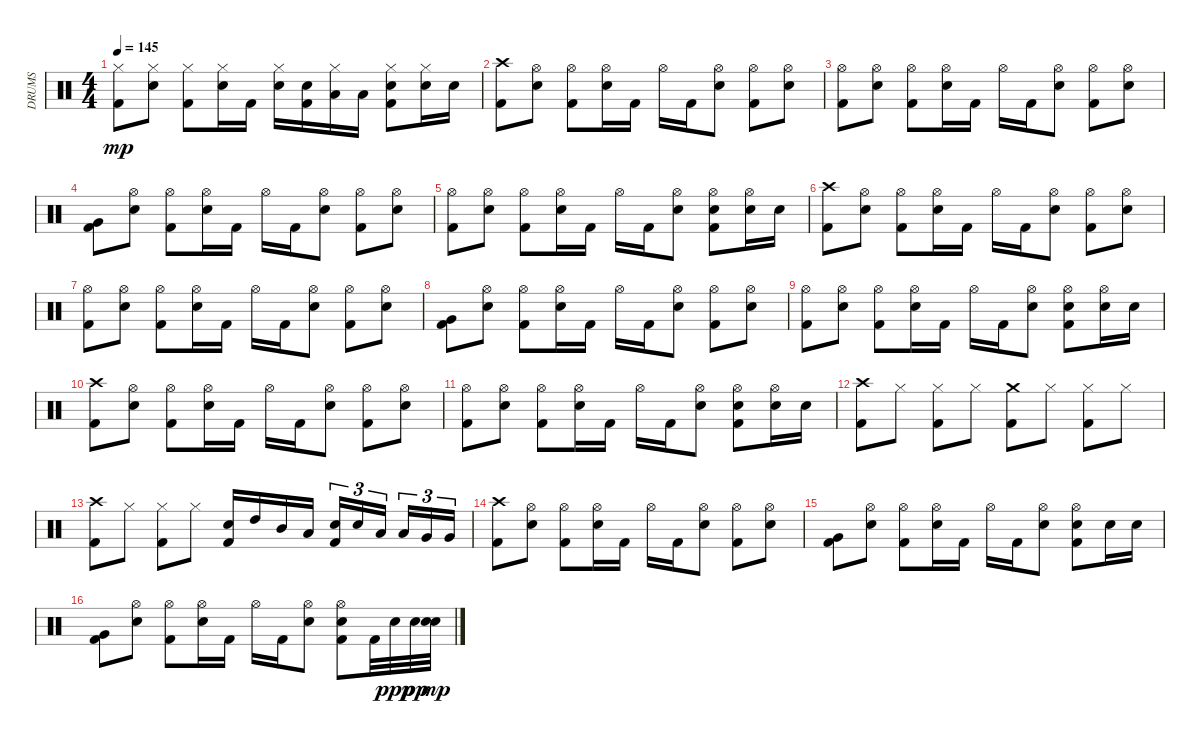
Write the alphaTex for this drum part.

\track ("DRUMS" "DRUMS") {instrument percussion}
\staff {score}
\articulation defaults
\ts (4 4)
\tempo 145
\clef neutral
\ks c
("Hi-Hat (closed)" "Kick (hit) 2").8{dy mp} ("Hi-Hat (closed)" "Electric Snare (hit)").8 ("Hi-Hat (closed)" "Kick (hit) 2").8 ("Hi-Hat (closed)" "Electric Snare (hit)").16 "Kick (hit) 2".16 ("Electric Snare (hit)" "Hi-Hat (closed)").16 ("Kick (hit) 2" "Electric Snare (hit)").16 ("Low Tom (hit)" "Hi-Hat (closed)").16 "Low Tom (hit)".16 ("Kick (hit) 2" "Electric Snare (hit)" "Hi-Hat (closed)").8 ("Electric Snare (hit)" "Hi-Hat (closed)").16 "Electric Snare (hit)".16 |
("Crash high (hit)" "Kick (hit) 2").8 ("Hi-Hat (open)" "Electric Snare (hit)").8 ("Hi-Hat (open)" "Kick (hit) 2").8 ("Hi-Hat (open)" "Electric Snare (hit)").16 "Kick (hit) 2".16 "Hi-Hat (open)".16 "Kick (hit) 2".16 ("Hi-Hat (open)" "Electric Snare (hit)").8 ("Hi-Hat (open)" "Kick (hit) 2").8 ("Hi-Hat (open)" "Electric Snare (hit)").8 |
("Hi-Hat (open)" "Kick (hit) 2").8 ("Hi-Hat (open)" "Electric Snare (hit)").8 ("Hi-Hat (open)" "Kick (hit) 2").8 ("Hi-Hat (open)" "Electric Snare (hit)").16 "Kick (hit) 2".16 "Hi-Hat (open)".16 "Kick (hit) 2".16 ("Hi-Hat (open)" "Electric Snare (hit)").8 ("Hi-Hat (open)" "Kick (hit) 2").8 ("Hi-Hat (open)" "Electric Snare (hit)").8 |
("Kick (hit) 2" "Very Low Tom (hit)").8 ("Hi-Hat (open)" "Electric Snare (hit)").8 ("Hi-Hat (open)" "Kick (hit) 2").8 ("Hi-Hat (open)" "Electric Snare (hit)").16 "Kick (hit) 2".16 "Hi-Hat (open)".16 "Kick (hit) 2".16 ("Hi-Hat (open)" "Electric Snare (hit)").8 ("Hi-Hat (open)" "Kick (hit) 2").8 ("Hi-Hat (open)" "Electric Snare (hit)").8 |
("Hi-Hat (open)" "Kick (hit) 2").8 ("Hi-Hat (open)" "Electric Snare (hit)").8 ("Hi-Hat (open)" "Kick (hit) 2").8 ("Hi-Hat (open)" "Electric Snare (hit)").16 "Kick (hit) 2".16 "Hi-Hat (open)".16 "Kick (hit) 2".16 ("Hi-Hat (open)" "Electric Snare (hit)").8 ("Hi-Hat (open)" "Kick (hit) 2" "Electric Snare (hit)").8 ("Hi-Hat (open)" "Electric Snare (hit)").16 "Electric Snare (hit)".16 |
("Crash high (hit)" "Kick (hit) 2").8 ("Hi-Hat (open)" "Electric Snare (hit)").8 ("Hi-Hat (open)" "Kick (hit) 2").8 ("Hi-Hat (open)" "Electric Snare (hit)").16 "Kick (hit) 2".16 "Hi-Hat (open)".16 "Kick (hit) 2".16 ("Hi-Hat (open)" "Electric Snare (hit)").8 ("Hi-Hat (open)" "Kick (hit) 2").8 ("Hi-Hat (open)" "Electric Snare (hit)").8 |
("Hi-Hat (open)" "Kick (hit) 2").8 ("Hi-Hat (open)" "Electric Snare (hit)").8 ("Hi-Hat (open)" "Kick (hit) 2").8 ("Hi-Hat (open)" "Electric Snare (hit)").16 "Kick (hit) 2".16 "Hi-Hat (open)".16 "Kick (hit) 2".16 ("Hi-Hat (open)" "Electric Snare (hit)").8 ("Hi-Hat (open)" "Kick (hit) 2").8 ("Hi-Hat (open)" "Electric Snare (hit)").8 |
("Kick (hit) 2" "Very Low Tom (hit)").8 ("Hi-Hat (open)" "Electric Snare (hit)").8 ("Hi-Hat (open)" "Kick (hit) 2").8 ("Hi-Hat (open)" "Electric Snare (hit)").16 "Kick (hit) 2".16 "Hi-Hat (open)".16 "Kick (hit) 2".16 ("Hi-Hat (open)" "Electric Snare (hit)").8 ("Hi-Hat (open)" "Kick (hit) 2").8 ("Hi-Hat (open)" "Electric Snare (hit)").8 |
("Hi-Hat (open)" "Kick (hit) 2").8 ("Hi-Hat (open)" "Electric Snare (hit)").8 ("Hi-Hat (open)" "Kick (hit) 2").8 ("Hi-Hat (open)" "Electric Snare (hit)").16 "Kick (hit) 2".16 "Hi-Hat (open)".16 "Kick (hit) 2".16 ("Hi-Hat (open)" "Electric Snare (hit)").8 ("Hi-Hat (open)" "Kick (hit) 2" "Electric Snare (hit)").8 ("Hi-Hat (open)" "Electric Snare (hit)").16 "Electric Snare (hit)".16 |
("Crash high (hit)" "Kick (hit) 2").8 ("Hi-Hat (open)" "Electric Snare (hit)").8 ("Hi-Hat (open)" "Kick (hit) 2").8 ("Hi-Hat (open)" "Electric Snare (hit)").16 "Kick (hit) 2".16 "Hi-Hat (open)".16 "Kick (hit) 2".16 ("Hi-Hat (open)" "Electric Snare (hit)").8 ("Hi-Hat (open)" "Kick (hit) 2").8 ("Hi-Hat (open)" "Electric Snare (hit)").8 |
("Hi-Hat (open)" "Kick (hit) 2").8 ("Hi-Hat (open)" "Electric Snare (hit)").8 ("Hi-Hat (open)" "Kick (hit) 2").8 ("Hi-Hat (open)" "Electric Snare (hit)").16 "Kick (hit) 2".16 "Hi-Hat (open)".16 "Kick (hit) 2".16 ("Hi-Hat (open)" "Electric Snare (hit)").8 ("Hi-Hat (open)" "Kick (hit) 2" "Electric Snare (hit)").8 ("Hi-Hat (open)" "Electric Snare (hit)").16 "Electric Snare (hit)".16 |
("Crash high (hit)" "Kick (hit) 2").8 "Hi-Hat (closed)".8 ("Hi-Hat (closed)" "Kick (hit) 2").8 "Hi-Hat (closed)".8 ("Kick (hit) 2" "Crash medium (hit)").8 "Hi-Hat (closed)".8 ("Hi-Hat (closed)" "Kick (hit) 2").8 "Hi-Hat (closed)".8 |
("Kick (hit) 2" "Crash high (hit)").8 "Hi-Hat (closed)".8 ("Hi-Hat (closed)" "Kick (hit) 2").8 "Hi-Hat (closed)".8 ("Kick (hit) 2" "Electric Snare (hit)").16 "High Tom (hit)".16 "Mid Tom (hit)".16 "Low Tom (hit)".16 ("Kick (hit) 2" "Electric Snare (hit)").16{tu (3 2)} "Electric Snare (hit)".16{tu (3 2)} "Low Tom (hit)".16{tu (3 2) beam splitsecondary} "Low Tom (hit)".16{tu (3 2)} "Very Low Tom (hit)".16{tu (3 2)} "Very Low Tom (hit)".16{tu (3 2)} |
("Crash high (hit)" "Kick (hit) 2").8 ("Hi-Hat (open)" "Electric Snare (hit)").8 ("Hi-Hat (open)" "Kick (hit) 2").8 ("Hi-Hat (open)" "Electric Snare (hit)").16 "Kick (hit) 2".16 "Hi-Hat (open)".16 "Kick (hit) 2".16 ("Hi-Hat (open)" "Electric Snare (hit)").8 ("Hi-Hat (open)" "Kick (hit) 2").8 ("Hi-Hat (open)" "Electric Snare (hit)").8 |
("Kick (hit) 2" "Very Low Tom (hit)").8 ("Hi-Hat (open)" "Electric Snare (hit)").8 ("Hi-Hat (open)" "Kick (hit) 2").8 ("Hi-Hat (open)" "Electric Snare (hit)").16 "Kick (hit) 2".16 "Hi-Hat (open)".16 "Kick (hit) 2".16 ("Hi-Hat (open)" "Electric Snare (hit)").8 ("Hi-Hat (open)" "Kick (hit) 2" "Electric Snare (hit)").8 "Electric Snare (hit)".16 "Electric Snare (hit)".16 |
("Kick (hit) 2" "Very Low Tom (hit)").8 ("Electric Snare (hit)" "Hi-Hat (open)").8 ("Hi-Hat (open)" "Kick (hit) 2").8 ("Electric Snare (hit)" "Hi-Hat (open)").16 "Kick (hit) 2".16 "Hi-Hat (open)".16 "Kick (hit) 2".16 ("Electric Snare (hit)" "Hi-Hat (open)").8 ("Electric Snare (hit)" "Hi-Hat (open)" "Kick (hit) 2").8 "Kick (hit) 2".32 "Electric Snare (hit)".32{dy ppp} "Electric Snare (hit)".32{dy pp} ("Electric Snare (hit)" "Electric Snare (hit)").32{dy mp}
